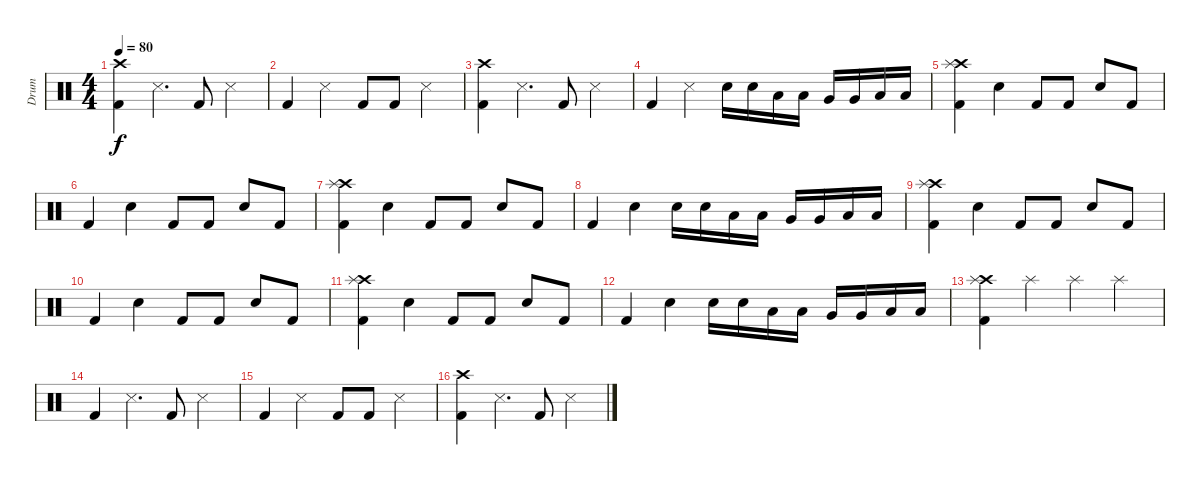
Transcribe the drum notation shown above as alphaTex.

\track ("Drum" "Drum") {instrument percussion}
\staff {score}
\articulation defaults
\ts (4 4)
\tempo 80
\clef neutral
\ks c
("Kick (hit) 2" "Crash high (hit)").4{dy f} "Snare (side stick) 3".4{d} "Kick (hit) 2".8 "Snare (side stick) 3".4 |
"Kick (hit) 2".4 "Snare (side stick) 3".4 "Kick (hit) 2".8 "Kick (hit) 2".8 "Snare (side stick) 3".4 |
("Kick (hit) 2" "Crash high (hit)").4 "Snare (side stick) 3".4{d} "Kick (hit) 2".8 "Snare (side stick) 3".4 |
"Kick (hit) 2".4 "Snare (side stick) 3".4 "Snare (hit) 2".16 "Snare (hit) 2".16 "Low Floor Tom (hit)".16 "Low Floor Tom (hit)".16 "Very Low Tom (hit)".16 "Very Low Tom (hit)".16 "Low Floor Tom (hit)".16 "Low Floor Tom (hit)".16 |
("Kick (hit) 2" "Crash high (hit)" "Splash (hit)").4 "Snare (hit) 2".4 "Kick (hit) 2".8 "Kick (hit) 2".8 "Snare (hit) 2".8 "Kick (hit) 2".8 |
"Kick (hit) 2".4 "Snare (hit) 2".4 "Kick (hit) 2".8 "Kick (hit) 2".8 "Snare (hit) 2".8 "Kick (hit) 2".8 |
("Kick (hit) 2" "Crash high (hit)" "Splash (hit)").4 "Snare (hit) 2".4 "Kick (hit) 2".8 "Kick (hit) 2".8 "Snare (hit) 2".8 "Kick (hit) 2".8 |
"Kick (hit) 2".4 "Snare (hit) 2".4 "Snare (hit) 2".16 "Snare (hit) 2".16 "Low Floor Tom (hit)".16 "Low Floor Tom (hit)".16 "Very Low Tom (hit)".16 "Very Low Tom (hit)".16 "Low Floor Tom (hit)".16 "Low Floor Tom (hit)".16 |
("Kick (hit) 2" "Crash high (hit)" "Splash (hit)").4 "Snare (hit) 2".4 "Kick (hit) 2".8 "Kick (hit) 2".8 "Snare (hit) 2".8 "Kick (hit) 2".8 |
"Kick (hit) 2".4 "Snare (hit) 2".4 "Kick (hit) 2".8 "Kick (hit) 2".8 "Snare (hit) 2".8 "Kick (hit) 2".8 |
("Kick (hit) 2" "Crash high (hit)" "Splash (hit)").4 "Snare (hit) 2".4 "Kick (hit) 2".8 "Kick (hit) 2".8 "Snare (hit) 2".8 "Kick (hit) 2".8 |
"Kick (hit) 2".4 "Snare (hit) 2".4 "Snare (hit) 2".16 "Snare (hit) 2".16 "Low Floor Tom (hit)".16 "Low Floor Tom (hit)".16 "Very Low Tom (hit)".16 "Very Low Tom (hit)".16 "Low Floor Tom (hit)".16 "Low Floor Tom (hit)".16 |
("Kick (hit) 2" "Crash high (hit)" "Splash (hit)").4 "Splash (hit)".4 "Splash (hit)".4 "Splash (hit)".4 |
"Kick (hit) 2".4 "Snare (side stick) 3".4{d} "Kick (hit) 2".8 "Snare (side stick) 3".4 |
"Kick (hit) 2".4 "Snare (side stick) 3".4 "Kick (hit) 2".8 "Kick (hit) 2".8 "Snare (side stick) 3".4 |
("Kick (hit) 2" "Crash high (hit)").4 "Snare (side stick) 3".4{d} "Kick (hit) 2".8 "Snare (side stick) 3".4
